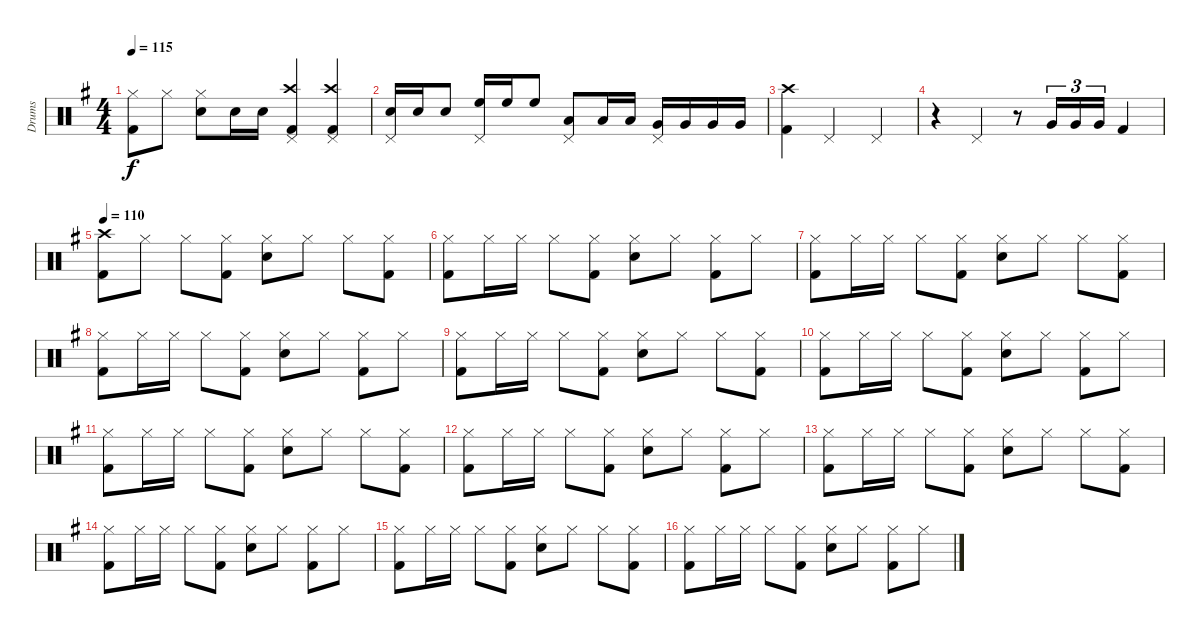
\track ("Drums" "Drums") {instrument percussion}
\staff {score}
\articulation defaults
\ts (4 4)
\tempo 115
\clef neutral
\ks eminor
("Hi-Hat (closed)" "Kick (hit) 2").8{dy f} "Hi-Hat (closed)".8 ("Hi-Hat (closed)" "Electric Snare (hit)").8 "Electric Snare (hit)".16 "Electric Snare (hit)".16 ("Crash high (hit)" "Pedal Hi-Hat (hit)" "Kick (hit) 2").4 ("Crash high (hit)" "Pedal Hi-Hat (hit)" "Kick (hit) 2").4 |
("Pedal Hi-Hat (hit)" "Electric Snare (hit)").16 "Electric Snare (hit)".16 "Electric Snare (hit)".8 ("Pedal Hi-Hat (hit)" "High Floor Tom (hit)").16 "High Floor Tom (hit)".16 "High Floor Tom (hit)".8 ("Pedal Hi-Hat (hit)" "Low Tom (hit)").8 "Low Tom (hit)".16 "Low Tom (hit)".16 ("Pedal Hi-Hat (hit)" "Very Low Tom (hit)").16 "Very Low Tom (hit)".16 "Very Low Tom (hit)".16 "Very Low Tom (hit)".16 |
("Crash high (hit)" "Kick (hit) 2").4 "Pedal Hi-Hat (hit)".2 "Pedal Hi-Hat (hit)".4 |
r.4 "Pedal Hi-Hat (hit)".4 r.8 "Very Low Tom (hit)".16{tu (3 2)} "Very Low Tom (hit)".16{tu (3 2)} "Very Low Tom (hit)".16{tu (3 2)} "Kick (hit) 2".4 |
\tempo 110
("Crash high (hit)" "Kick (hit) 2").8 "Hi-Hat (closed)".8 "Hi-Hat (closed)".8 ("Hi-Hat (closed)" "Kick (hit) 2").8 ("Hi-Hat (closed)" "Electric Snare (hit)").8 "Hi-Hat (closed)".8 "Hi-Hat (closed)".8 ("Hi-Hat (closed)" "Kick (hit) 2").8 |
("Hi-Hat (closed)" "Kick (hit) 2").8 "Hi-Hat (closed)".16 "Hi-Hat (closed)".16 "Hi-Hat (closed)".8 ("Hi-Hat (closed)" "Kick (hit) 2").8 ("Hi-Hat (closed)" "Electric Snare (hit)").8 "Hi-Hat (closed)".8 ("Hi-Hat (closed)" "Kick (hit) 2").8 "Hi-Hat (closed)".8 |
("Hi-Hat (closed)" "Kick (hit) 2").8 "Hi-Hat (closed)".16 "Hi-Hat (closed)".16 "Hi-Hat (closed)".8 ("Hi-Hat (closed)" "Kick (hit) 2").8 ("Hi-Hat (closed)" "Electric Snare (hit)").8 "Hi-Hat (closed)".8 "Hi-Hat (closed)".8 ("Hi-Hat (closed)" "Kick (hit) 2").8 |
("Hi-Hat (closed)" "Kick (hit) 2").8 "Hi-Hat (closed)".16 "Hi-Hat (closed)".16 "Hi-Hat (closed)".8 ("Hi-Hat (closed)" "Kick (hit) 2").8 ("Hi-Hat (closed)" "Electric Snare (hit)").8 "Hi-Hat (closed)".8 ("Hi-Hat (closed)" "Kick (hit) 2").8 "Hi-Hat (closed)".8 |
("Hi-Hat (closed)" "Kick (hit) 2").8 "Hi-Hat (closed)".16 "Hi-Hat (closed)".16 "Hi-Hat (closed)".8 ("Hi-Hat (closed)" "Kick (hit) 2").8 ("Hi-Hat (closed)" "Electric Snare (hit)").8 "Hi-Hat (closed)".8 "Hi-Hat (closed)".8 ("Hi-Hat (closed)" "Kick (hit) 2").8 |
("Hi-Hat (closed)" "Kick (hit) 2").8 "Hi-Hat (closed)".16 "Hi-Hat (closed)".16 "Hi-Hat (closed)".8 ("Hi-Hat (closed)" "Kick (hit) 2").8 ("Hi-Hat (closed)" "Electric Snare (hit)").8 "Hi-Hat (closed)".8 ("Hi-Hat (closed)" "Kick (hit) 2").8 "Hi-Hat (closed)".8 |
("Hi-Hat (closed)" "Kick (hit) 2").8 "Hi-Hat (closed)".16 "Hi-Hat (closed)".16 "Hi-Hat (closed)".8 ("Hi-Hat (closed)" "Kick (hit) 2").8 ("Hi-Hat (closed)" "Electric Snare (hit)").8 "Hi-Hat (closed)".8 "Hi-Hat (closed)".8 ("Hi-Hat (closed)" "Kick (hit) 2").8 |
("Hi-Hat (closed)" "Kick (hit) 2").8 "Hi-Hat (closed)".16 "Hi-Hat (closed)".16 "Hi-Hat (closed)".8 ("Hi-Hat (closed)" "Kick (hit) 2").8 ("Hi-Hat (closed)" "Electric Snare (hit)").8 "Hi-Hat (closed)".8 ("Hi-Hat (closed)" "Kick (hit) 2").8 "Hi-Hat (closed)".8 |
("Hi-Hat (closed)" "Kick (hit) 2").8 "Hi-Hat (closed)".16 "Hi-Hat (closed)".16 "Hi-Hat (closed)".8 ("Hi-Hat (closed)" "Kick (hit) 2").8 ("Hi-Hat (closed)" "Electric Snare (hit)").8 "Hi-Hat (closed)".8 "Hi-Hat (closed)".8 ("Hi-Hat (closed)" "Kick (hit) 2").8 |
("Hi-Hat (closed)" "Kick (hit) 2").8 "Hi-Hat (closed)".16 "Hi-Hat (closed)".16 "Hi-Hat (closed)".8 ("Hi-Hat (closed)" "Kick (hit) 2").8 ("Hi-Hat (closed)" "Electric Snare (hit)").8 "Hi-Hat (closed)".8 ("Hi-Hat (closed)" "Kick (hit) 2").8 "Hi-Hat (closed)".8 |
("Hi-Hat (closed)" "Kick (hit) 2").8 "Hi-Hat (closed)".16 "Hi-Hat (closed)".16 "Hi-Hat (closed)".8 ("Hi-Hat (closed)" "Kick (hit) 2").8 ("Hi-Hat (closed)" "Electric Snare (hit)").8 "Hi-Hat (closed)".8 "Hi-Hat (closed)".8 ("Hi-Hat (closed)" "Kick (hit) 2").8 |
("Hi-Hat (closed)" "Kick (hit) 2").8 "Hi-Hat (closed)".16 "Hi-Hat (closed)".16 "Hi-Hat (closed)".8 ("Hi-Hat (closed)" "Kick (hit) 2").8 ("Hi-Hat (closed)" "Electric Snare (hit)").8 "Hi-Hat (closed)".8 ("Hi-Hat (closed)" "Kick (hit) 2").8 "Hi-Hat (closed)".8
